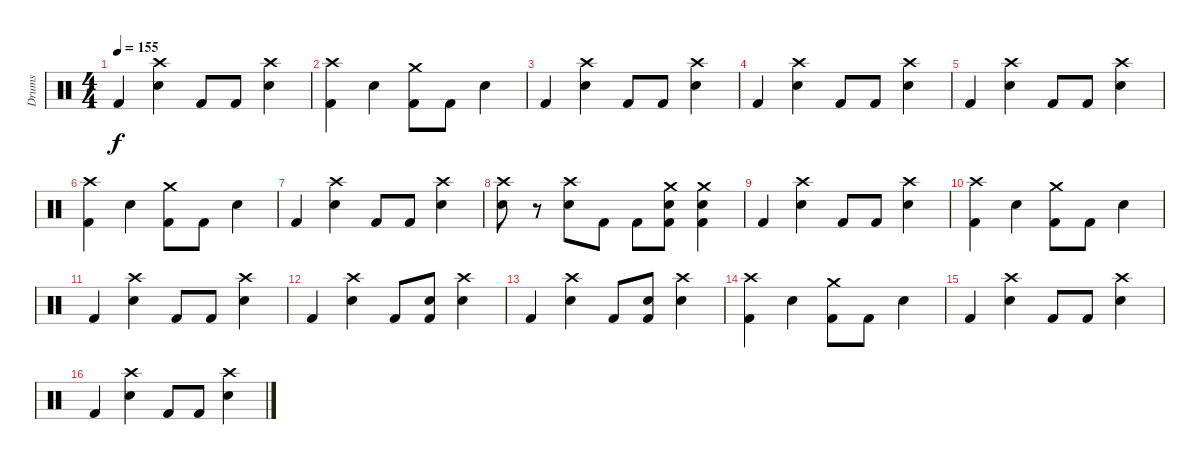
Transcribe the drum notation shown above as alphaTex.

\track ("Drums" "Drums") {instrument percussion}
\staff {score}
\articulation defaults
\ts (4 4)
\tempo 155
\clef neutral
\ks c "Kick (hit) 2".4{dy f}
("Crash high (hit)" "Snare (hit) 2").4 "Kick (hit) 2".8 "Kick (hit) 2".8 ("Crash high (hit)" "Snare (hit) 2").4 |
("Crash high (hit)" "Kick (hit) 2").4 "Snare (hit) 2".4 ("Crash medium (hit)" "Kick (hit) 2").8 "Kick (hit) 2".8 "Snare (hit) 2".4 |
"Kick (hit) 2".4 ("Crash high (hit)" "Snare (hit) 2").4 "Kick (hit) 2".8 "Kick (hit) 2".8 ("Crash high (hit)" "Snare (hit) 2").4 |
"Kick (hit) 2".4 ("Crash high (hit)" "Snare (hit) 2").4 "Kick (hit) 2".8 "Kick (hit) 2".8 ("Crash high (hit)" "Snare (hit) 2").4 |
"Kick (hit) 2".4 ("Crash high (hit)" "Snare (hit) 2").4 "Kick (hit) 2".8 "Kick (hit) 2".8 ("Crash high (hit)" "Snare (hit) 2").4 |
("Crash high (hit)" "Kick (hit) 2").4 "Snare (hit) 2".4 ("Crash medium (hit)" "Kick (hit) 2").8 "Kick (hit) 2".8 "Snare (hit) 2".4 |
"Kick (hit) 2".4 ("Crash high (hit)" "Snare (hit) 2").4 "Kick (hit) 2".8 "Kick (hit) 2".8 ("Crash high (hit)" "Snare (hit) 2").4 |
("Snare (hit) 2" "Crash high (hit)").8 r.8 ("Snare (hit) 2" "Crash high (hit)").8 "Kick (hit) 2".8 "Kick (hit) 2".8 ("Crash medium (hit)" "Snare (hit) 2" "Kick (hit) 2").8 ("Crash medium (hit)" "Snare (hit) 2" "Kick (hit) 2").4 |
"Kick (hit) 2".4 ("Crash high (hit)" "Snare (hit) 2").4 "Kick (hit) 2".8 "Kick (hit) 2".8 ("Crash high (hit)" "Snare (hit) 2").4 |
("Crash high (hit)" "Kick (hit) 2").4 "Snare (hit) 2".4 ("Crash medium (hit)" "Kick (hit) 2").8 "Kick (hit) 2".8 "Snare (hit) 2".4 |
"Kick (hit) 2".4 ("Crash high (hit)" "Snare (hit) 2").4 "Kick (hit) 2".8 "Kick (hit) 2".8 ("Crash high (hit)" "Snare (hit) 2").4 |
"Kick (hit) 2".4 ("Crash high (hit)" "Snare (hit) 2").4 "Kick (hit) 2".8 ("Snare (hit) 2" "Kick (hit) 2").8 ("Crash high (hit)" "Snare (hit) 2").4 |
"Kick (hit) 2".4 ("Crash high (hit)" "Snare (hit) 2").4 "Kick (hit) 2".8 ("Snare (hit) 2" "Kick (hit) 2").8 ("Crash high (hit)" "Snare (hit) 2").4 |
("Crash high (hit)" "Kick (hit) 2").4 "Snare (hit) 2".4 ("Crash medium (hit)" "Kick (hit) 2").8 "Kick (hit) 2".8 "Snare (hit) 2".4 |
"Kick (hit) 2".4 ("Crash high (hit)" "Snare (hit) 2").4 "Kick (hit) 2".8 "Kick (hit) 2".8 ("Crash high (hit)" "Snare (hit) 2").4 |
"Kick (hit) 2".4 ("Crash high (hit)" "Snare (hit) 2").4 "Kick (hit) 2".8 "Kick (hit) 2".8 ("Crash high (hit)" "Snare (hit) 2").4
